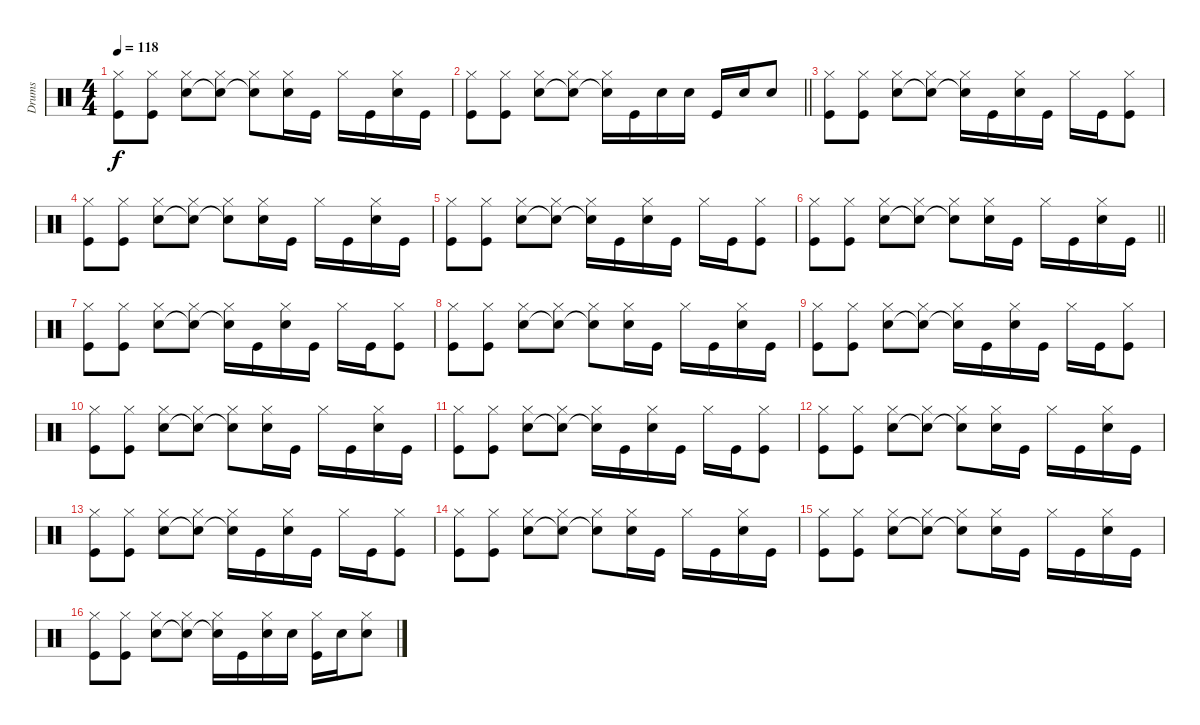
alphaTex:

\track ("Drums" "Drums") {instrument percussion}
\staff {score}
\articulation defaults
\ts (4 4)
\tempo 118
\clef neutral
\ks c
("Hi-Hat (closed)" "Kick (hit)").8{dy f} ("Hi-Hat (closed)" "Kick (hit)").8 ("Hi-Hat (closed)" "Snare (hit) 2").8 ("Hi-Hat (closed)" "Snare (hit)"{t}).8 ("Hi-Hat (closed)" "Snare (hit)"{t}).8 ("Hi-Hat (closed)" "Snare (hit) 2").16 "Kick (hit)".16 "Hi-Hat (closed)".16 "Kick (hit)".16 ("Hi-Hat (closed)" "Snare (hit) 2").16 "Kick (hit)".16 |
\barLineRight lightlight
("Hi-Hat (closed)" "Kick (hit)").8 ("Hi-Hat (closed)" "Kick (hit)").8 ("Hi-Hat (closed)" "Snare (hit) 2").8 ("Hi-Hat (closed)" "Snare (hit)"{t}).8 ("Hi-Hat (closed)" "Snare (hit)"{t}).16 "Kick (hit)".16 "Snare (hit) 2".16 "Snare (hit) 2".16 "Kick (hit)".16 "Snare (hit) 2".16 "Snare (hit) 2".8 |
\section ("" "")
("Hi-Hat (closed)" "Kick (hit)").8 ("Hi-Hat (closed)" "Kick (hit)").8 ("Hi-Hat (closed)" "Snare (hit) 2").8 ("Hi-Hat (closed)" "Snare (hit)"{t}).8 ("Hi-Hat (closed)" "Snare (hit)"{t}).16 "Kick (hit)".16 ("Hi-Hat (closed)" "Snare (hit) 2").16 "Kick (hit)".16 "Hi-Hat (closed)".16 "Kick (hit)".16 ("Hi-Hat (closed)" "Kick (hit)").8 |
("Hi-Hat (closed)" "Kick (hit)").8 ("Hi-Hat (closed)" "Kick (hit)").8 ("Hi-Hat (closed)" "Snare (hit) 2").8 ("Hi-Hat (closed)" "Snare (hit)"{t}).8 ("Hi-Hat (closed)" "Snare (hit)"{t}).8 ("Hi-Hat (closed)" "Snare (hit) 2").16 "Kick (hit)".16 "Hi-Hat (closed)".16 "Kick (hit)".16 ("Hi-Hat (closed)" "Snare (hit) 2").16 "Kick (hit)".16 |
("Hi-Hat (closed)" "Kick (hit)").8 ("Hi-Hat (closed)" "Kick (hit)").8 ("Hi-Hat (closed)" "Snare (hit) 2").8 ("Hi-Hat (closed)" "Snare (hit)"{t}).8 ("Hi-Hat (closed)" "Snare (hit)"{t}).16 "Kick (hit)".16 ("Hi-Hat (closed)" "Snare (hit) 2").16 "Kick (hit)".16 "Hi-Hat (closed)".16 "Kick (hit)".16 ("Hi-Hat (closed)" "Kick (hit)").8 |
\barLineRight lightlight
("Hi-Hat (closed)" "Kick (hit)").8 ("Hi-Hat (closed)" "Kick (hit)").8 ("Hi-Hat (closed)" "Snare (hit) 2").8 ("Hi-Hat (closed)" "Snare (hit)"{t}).8 ("Hi-Hat (closed)" "Snare (hit)"{t}).8 ("Hi-Hat (closed)" "Snare (hit) 2").16 "Kick (hit)".16 "Hi-Hat (closed)".16 "Kick (hit)".16 ("Hi-Hat (closed)" "Snare (hit) 2").16 "Kick (hit)".16 |
\section ("" "")
("Hi-Hat (closed)" "Kick (hit)").8 ("Hi-Hat (closed)" "Kick (hit)").8 ("Hi-Hat (closed)" "Snare (hit) 2").8 ("Hi-Hat (closed)" "Snare (hit)"{t}).8 ("Hi-Hat (closed)" "Snare (hit)"{t}).16 "Kick (hit)".16 ("Hi-Hat (closed)" "Snare (hit) 2").16 "Kick (hit)".16 "Hi-Hat (closed)".16 "Kick (hit)".16 ("Hi-Hat (closed)" "Kick (hit)").8 |
("Hi-Hat (closed)" "Kick (hit)").8 ("Hi-Hat (closed)" "Kick (hit)").8 ("Hi-Hat (closed)" "Snare (hit) 2").8 ("Hi-Hat (closed)" "Snare (hit)"{t}).8 ("Hi-Hat (closed)" "Snare (hit)"{t}).8 ("Hi-Hat (closed)" "Snare (hit) 2").16 "Kick (hit)".16 "Hi-Hat (closed)".16 "Kick (hit)".16 ("Hi-Hat (closed)" "Snare (hit) 2").16 "Kick (hit)".16 |
("Hi-Hat (closed)" "Kick (hit)").8 ("Hi-Hat (closed)" "Kick (hit)").8 ("Hi-Hat (closed)" "Snare (hit) 2").8 ("Hi-Hat (closed)" "Snare (hit)"{t}).8 ("Hi-Hat (closed)" "Snare (hit)"{t}).16 "Kick (hit)".16 ("Hi-Hat (closed)" "Snare (hit) 2").16 "Kick (hit)".16 "Hi-Hat (closed)".16 "Kick (hit)".16 ("Hi-Hat (closed)" "Kick (hit)").8 |
("Hi-Hat (closed)" "Kick (hit)").8 ("Hi-Hat (closed)" "Kick (hit)").8 ("Hi-Hat (closed)" "Snare (hit) 2").8 ("Hi-Hat (closed)" "Snare (hit)"{t}).8 ("Hi-Hat (closed)" "Snare (hit)"{t}).8 ("Hi-Hat (closed)" "Snare (hit) 2").16 "Kick (hit)".16 "Hi-Hat (closed)".16 "Kick (hit)".16 ("Hi-Hat (closed)" "Snare (hit) 2").16 "Kick (hit)".16 |
("Hi-Hat (closed)" "Kick (hit)").8 ("Hi-Hat (closed)" "Kick (hit)").8 ("Hi-Hat (closed)" "Snare (hit) 2").8 ("Hi-Hat (closed)" "Snare (hit)"{t}).8 ("Hi-Hat (closed)" "Snare (hit)"{t}).16 "Kick (hit)".16 ("Hi-Hat (closed)" "Snare (hit) 2").16 "Kick (hit)".16 "Hi-Hat (closed)".16 "Kick (hit)".16 ("Hi-Hat (closed)" "Kick (hit)").8 |
("Hi-Hat (closed)" "Kick (hit)").8 ("Hi-Hat (closed)" "Kick (hit)").8 ("Hi-Hat (closed)" "Snare (hit) 2").8 ("Hi-Hat (closed)" "Snare (hit)"{t}).8 ("Hi-Hat (closed)" "Snare (hit)"{t}).8 ("Hi-Hat (closed)" "Snare (hit) 2").16 "Kick (hit)".16 "Hi-Hat (closed)".16 "Kick (hit)".16 ("Hi-Hat (closed)" "Snare (hit) 2").16 "Kick (hit)".16 |
("Hi-Hat (closed)" "Kick (hit)").8 ("Hi-Hat (closed)" "Kick (hit)").8 ("Hi-Hat (closed)" "Snare (hit) 2").8 ("Hi-Hat (closed)" "Snare (hit)"{t}).8 ("Hi-Hat (closed)" "Snare (hit)"{t}).16 "Kick (hit)".16 ("Hi-Hat (closed)" "Snare (hit) 2").16 "Kick (hit)".16 "Hi-Hat (closed)".16 "Kick (hit)".16 ("Hi-Hat (closed)" "Kick (hit)").8 |
("Hi-Hat (closed)" "Kick (hit)").8 ("Hi-Hat (closed)" "Kick (hit)").8 ("Hi-Hat (closed)" "Snare (hit) 2").8 ("Hi-Hat (closed)" "Snare (hit)"{t}).8 ("Hi-Hat (closed)" "Snare (hit)"{t}).8 ("Hi-Hat (closed)" "Snare (hit) 2").16 "Kick (hit)".16 "Hi-Hat (closed)".16 "Kick (hit)".16 ("Hi-Hat (closed)" "Snare (hit) 2").16 "Kick (hit)".16 |
("Hi-Hat (closed)" "Kick (hit)").8 ("Hi-Hat (closed)" "Kick (hit)").8 ("Hi-Hat (closed)" "Snare (hit) 2").8 ("Hi-Hat (closed)" "Snare (hit)"{t}).8 ("Hi-Hat (closed)" "Snare (hit)"{t}).8 ("Hi-Hat (closed)" "Snare (hit) 2").16 "Kick (hit)".16 "Hi-Hat (closed)".16 "Kick (hit)".16 ("Hi-Hat (closed)" "Snare (hit) 2").16 "Kick (hit)".16 |
("Hi-Hat (closed)" "Kick (hit)").8 ("Hi-Hat (closed)" "Kick (hit)").8 ("Hi-Hat (closed)" "Snare (hit) 2").8 ("Hi-Hat (closed)" "Snare (hit)"{t}).8 ("Hi-Hat (closed)" "Snare (hit)"{t}).16 "Kick (hit)".16 ("Hi-Hat (closed)" "Snare (hit) 2").16 "Snare (hit) 2".16 ("Hi-Hat (closed)" "Kick (hit)").16 "Snare (hit) 2".16 ("Hi-Hat (closed)" "Snare (hit) 2").8
